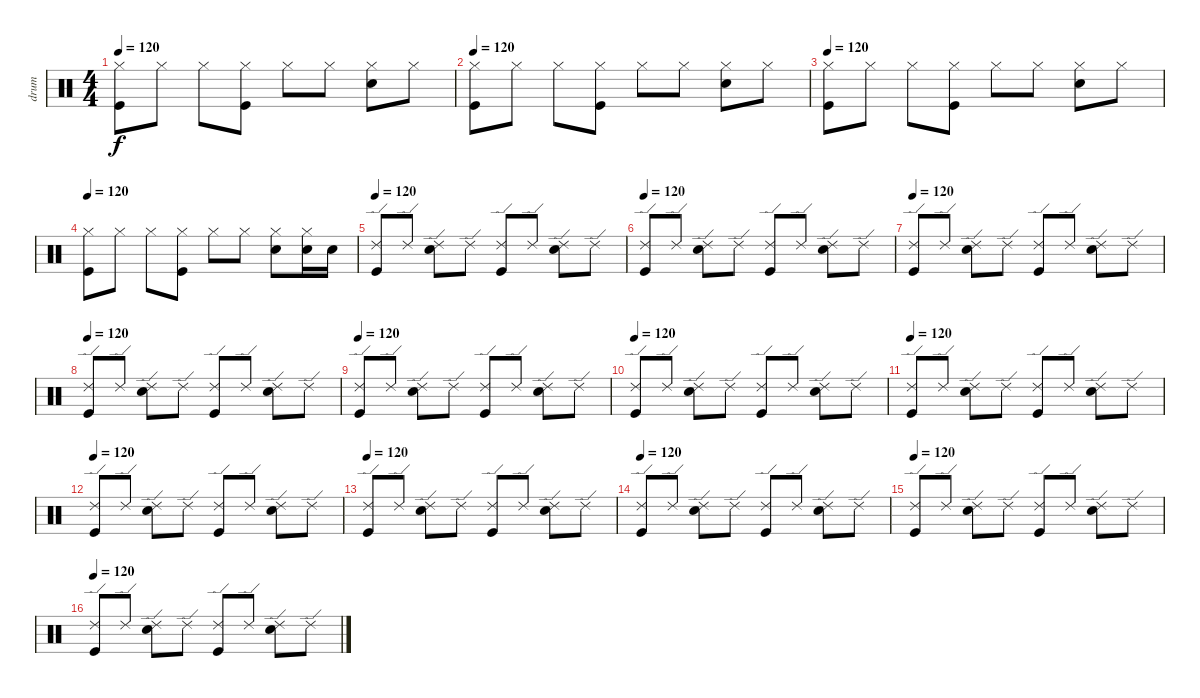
\track ("drum" "drum") {instrument percussion}
\staff {score}
\articulation defaults
\ts (4 4)
\tempo 120
\clef neutral
\ks c
("Hi-Hat (closed)" "Kick (hit)").8{dy f} "Hi-Hat (closed)".8 "Hi-Hat (closed)".8 ("Kick (hit)" "Hi-Hat (closed)").8 "Hi-Hat (closed)".8 "Hi-Hat (closed)".8 ("Electric Snare (hit)" "Hi-Hat (closed)").8 "Hi-Hat (closed)".8 |
\tempo 120
("Hi-Hat (closed)" "Kick (hit)").8 "Hi-Hat (closed)".8 "Hi-Hat (closed)".8 ("Kick (hit)" "Hi-Hat (closed)").8 "Hi-Hat (closed)".8 "Hi-Hat (closed)".8 ("Electric Snare (hit)" "Hi-Hat (closed)").8 "Hi-Hat (closed)".8 |
\tempo 120
("Hi-Hat (closed)" "Kick (hit)").8 "Hi-Hat (closed)".8 "Hi-Hat (closed)".8 ("Kick (hit)" "Hi-Hat (closed)").8 "Hi-Hat (closed)".8 "Hi-Hat (closed)".8 ("Electric Snare (hit)" "Hi-Hat (closed)").8 "Hi-Hat (closed)".8 |
\tempo 120
("Hi-Hat (closed)" "Kick (hit)").8 "Hi-Hat (closed)".8 "Hi-Hat (closed)".8 ("Kick (hit)" "Hi-Hat (closed)").8 "Hi-Hat (closed)".8 "Hi-Hat (closed)".8 ("Electric Snare (hit)" "Hi-Hat (closed)").8 ("Electric Snare (hit)" "Hi-Hat (closed)").16 "Electric Snare (hit)".16 |
\tempo 120
("Kick (hit)" "Ride (edge) 2").8 "Ride (edge) 2".8 ("Ride (edge) 2" "Electric Snare (hit)").8 "Ride (edge) 2".8 ("Kick (hit)" "Ride (edge) 2").8 "Ride (edge) 2".8 ("Electric Snare (hit)" "Ride (edge) 2").8 "Ride (edge) 2".8 |
\tempo 120
("Kick (hit)" "Ride (edge) 2").8 "Ride (edge) 2".8 ("Ride (edge) 2" "Electric Snare (hit)").8 "Ride (edge) 2".8 ("Kick (hit)" "Ride (edge) 2").8 "Ride (edge) 2".8 ("Electric Snare (hit)" "Ride (edge) 2").8 "Ride (edge) 2".8 |
\tempo 120
("Kick (hit)" "Ride (edge) 2").8 "Ride (edge) 2".8 ("Ride (edge) 2" "Electric Snare (hit)").8 "Ride (edge) 2".8 ("Kick (hit)" "Ride (edge) 2").8 "Ride (edge) 2".8 ("Electric Snare (hit)" "Ride (edge) 2").8 "Ride (edge) 2".8 |
\tempo 120
("Kick (hit)" "Ride (edge) 2").8 "Ride (edge) 2".8 ("Ride (edge) 2" "Electric Snare (hit)").8 "Ride (edge) 2".8 ("Kick (hit)" "Ride (edge) 2").8 "Ride (edge) 2".8 ("Electric Snare (hit)" "Ride (edge) 2").8 "Ride (edge) 2".8 |
\tempo 120
("Kick (hit)" "Ride (edge) 2").8 "Ride (edge) 2".8 ("Ride (edge) 2" "Electric Snare (hit)").8 "Ride (edge) 2".8 ("Kick (hit)" "Ride (edge) 2").8 "Ride (edge) 2".8 ("Electric Snare (hit)" "Ride (edge) 2").8 "Ride (edge) 2".8 |
\tempo 120
("Kick (hit)" "Ride (edge) 2").8 "Ride (edge) 2".8 ("Ride (edge) 2" "Electric Snare (hit)").8 "Ride (edge) 2".8 ("Kick (hit)" "Ride (edge) 2").8 "Ride (edge) 2".8 ("Electric Snare (hit)" "Ride (edge) 2").8 "Ride (edge) 2".8 |
\tempo 120
("Kick (hit)" "Ride (edge) 2").8 "Ride (edge) 2".8 ("Ride (edge) 2" "Electric Snare (hit)").8 "Ride (edge) 2".8 ("Kick (hit)" "Ride (edge) 2").8 "Ride (edge) 2".8 ("Electric Snare (hit)" "Ride (edge) 2").8 "Ride (edge) 2".8 |
\tempo 120
("Kick (hit)" "Ride (edge) 2").8 "Ride (edge) 2".8 ("Ride (edge) 2" "Electric Snare (hit)").8 "Ride (edge) 2".8 ("Kick (hit)" "Ride (edge) 2").8 "Ride (edge) 2".8 ("Electric Snare (hit)" "Ride (edge) 2").8 "Ride (edge) 2".8 |
\tempo 120
("Kick (hit)" "Ride (edge) 2").8 "Ride (edge) 2".8 ("Ride (edge) 2" "Electric Snare (hit)").8 "Ride (edge) 2".8 ("Kick (hit)" "Ride (edge) 2").8 "Ride (edge) 2".8 ("Electric Snare (hit)" "Ride (edge) 2").8 "Ride (edge) 2".8 |
\tempo 120
("Kick (hit)" "Ride (edge) 2").8 "Ride (edge) 2".8 ("Ride (edge) 2" "Electric Snare (hit)").8 "Ride (edge) 2".8 ("Kick (hit)" "Ride (edge) 2").8 "Ride (edge) 2".8 ("Electric Snare (hit)" "Ride (edge) 2").8 "Ride (edge) 2".8 |
\tempo 120
("Kick (hit)" "Ride (edge) 2").8 "Ride (edge) 2".8 ("Ride (edge) 2" "Electric Snare (hit)").8 "Ride (edge) 2".8 ("Kick (hit)" "Ride (edge) 2").8 "Ride (edge) 2".8 ("Electric Snare (hit)" "Ride (edge) 2").8 "Ride (edge) 2".8 |
\tempo 120
("Kick (hit)" "Ride (edge) 2").8 "Ride (edge) 2".8 ("Ride (edge) 2" "Electric Snare (hit)").8 "Ride (edge) 2".8 ("Kick (hit)" "Ride (edge) 2").8 "Ride (edge) 2".8 ("Electric Snare (hit)" "Ride (edge) 2").8 "Ride (edge) 2".8
